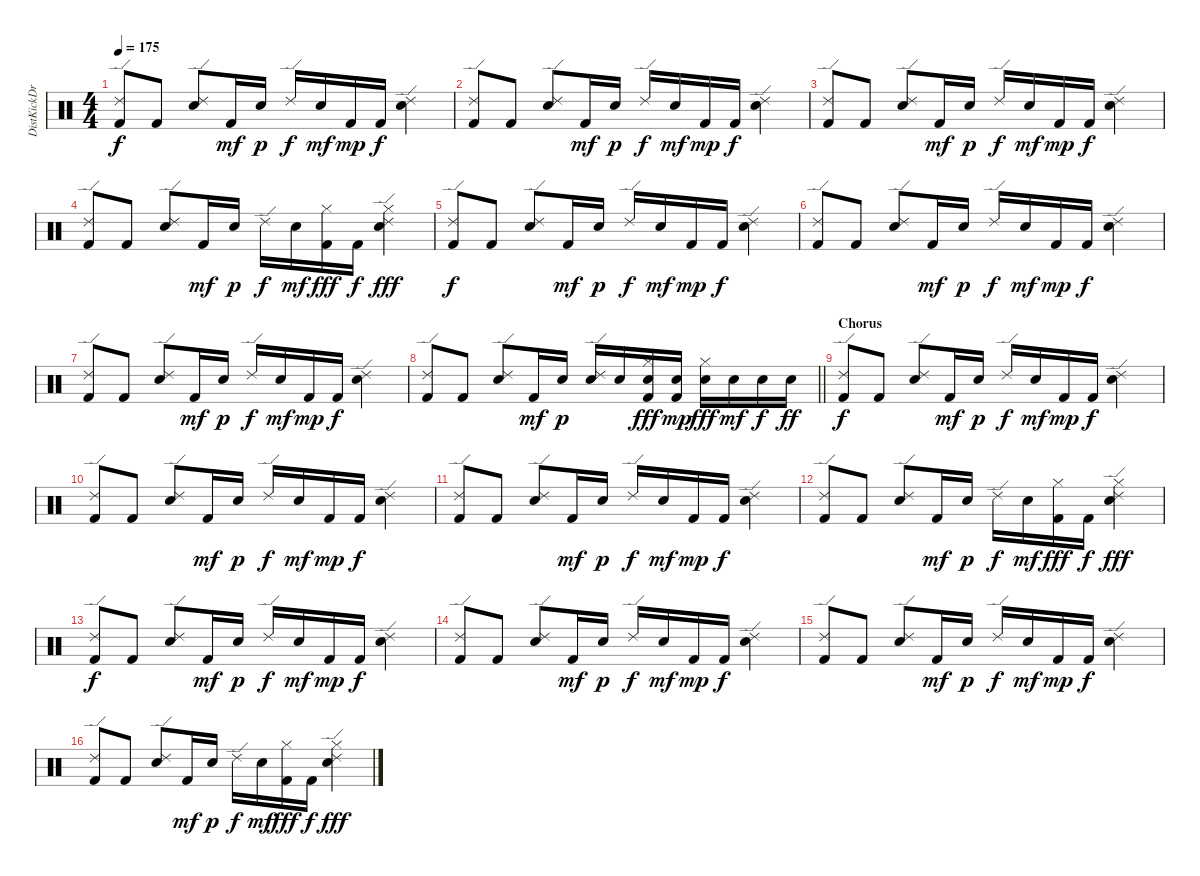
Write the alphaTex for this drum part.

\track ("DistKickDrums" "DistKickDr") {instrument percussion}
\staff {score}
\articulation defaults
\ts (4 4)
\tempo 175
\clef neutral
\ks c
("Kick (hit) 2" "Ride (edge) 2").8{dy f} "Kick (hit) 2".8 ("Snare (hit) 2" "Ride (edge) 2").8 "Kick (hit) 2".16{dy mf} "Snare (hit) 2".16{dy p} "Ride (edge) 2".16{dy f} "Snare (hit) 2".16{dy mf} "Kick (hit) 2".16{dy mp} "Kick (hit) 2".16{dy f} ("Snare (hit) 2" "Ride (edge) 2").4 |
("Kick (hit) 2" "Ride (edge) 2").8 "Kick (hit) 2".8 ("Snare (hit) 2" "Ride (edge) 2").8 "Kick (hit) 2".16{dy mf} "Snare (hit) 2".16{dy p} "Ride (edge) 2".16{dy f} "Snare (hit) 2".16{dy mf} "Kick (hit) 2".16{dy mp} "Kick (hit) 2".16{dy f} ("Snare (hit) 2" "Ride (edge) 2").4 |
("Kick (hit) 2" "Ride (edge) 2").8 "Kick (hit) 2".8 ("Snare (hit) 2" "Ride (edge) 2").8 "Kick (hit) 2".16{dy mf} "Snare (hit) 2".16{dy p} "Ride (edge) 2".16{dy f} "Snare (hit) 2".16{dy mf} "Kick (hit) 2".16{dy mp} "Kick (hit) 2".16{dy f} ("Snare (hit) 2" "Ride (edge) 2").4 |
("Kick (hit) 2" "Ride (edge) 2").8 "Kick (hit) 2".8 ("Snare (hit) 2" "Ride (edge) 2").8 "Kick (hit) 2".16{dy mf} "Snare (hit) 2".16{dy p} "Ride (edge) 2".16{dy f} "Snare (hit) 2".16{dy mf} ("Kick (hit) 2" "Cowbell high (tip)").16{dy fff} "Kick (hit) 2".16{dy f} ("Snare (hit) 2" "Ride (edge) 2" "Cowbell high (tip)").4{dy fff} |
("Kick (hit) 2" "Ride (edge) 2").8{dy f} "Kick (hit) 2".8 ("Snare (hit) 2" "Ride (edge) 2").8 "Kick (hit) 2".16{dy mf} "Snare (hit) 2".16{dy p} "Ride (edge) 2".16{dy f} "Snare (hit) 2".16{dy mf} "Kick (hit) 2".16{dy mp} "Kick (hit) 2".16{dy f} ("Snare (hit) 2" "Ride (edge) 2").4 |
("Kick (hit) 2" "Ride (edge) 2").8 "Kick (hit) 2".8 ("Snare (hit) 2" "Ride (edge) 2").8 "Kick (hit) 2".16{dy mf} "Snare (hit) 2".16{dy p} "Ride (edge) 2".16{dy f} "Snare (hit) 2".16{dy mf} "Kick (hit) 2".16{dy mp} "Kick (hit) 2".16{dy f} ("Snare (hit) 2" "Ride (edge) 2").4 |
("Kick (hit) 2" "Ride (edge) 2").8 "Kick (hit) 2".8 ("Snare (hit) 2" "Ride (edge) 2").8 "Kick (hit) 2".16{dy mf} "Snare (hit) 2".16{dy p} "Ride (edge) 2".16{dy f} "Snare (hit) 2".16{dy mf} "Kick (hit) 2".16{dy mp} "Kick (hit) 2".16{dy f} ("Snare (hit) 2" "Ride (edge) 2").4 |
\barLineRight lightlight
("Kick (hit) 2" "Ride (edge) 2").8 "Kick (hit) 2".8 ("Snare (hit) 2" "Ride (edge) 2").8 "Kick (hit) 2".16{dy mf} "Snare (hit) 2".16{dy p} ("Ride (edge) 2" "Electric Snare (hit)").16 "Electric Snare (hit)".16 ("Kick (hit) 2" "Electric Snare (hit)" "Cowbell high (tip)").16{dy fff} ("Kick (hit) 2" "Electric Snare (hit)").16{dy mp} ("Electric Snare (hit)" "Cowbell high (tip)").16{dy fff} "Electric Snare (hit)".16{dy mf} "Electric Snare (hit)".16{dy f} "Electric Snare (hit)".16{dy ff} |
\section ("" "Chorus")
("Kick (hit) 2" "Ride (edge) 2").8{dy f} "Kick (hit) 2".8 ("Snare (hit) 2" "Ride (edge) 2").8 "Kick (hit) 2".16{dy mf} "Snare (hit) 2".16{dy p} "Ride (edge) 2".16{dy f} "Snare (hit) 2".16{dy mf} "Kick (hit) 2".16{dy mp} "Kick (hit) 2".16{dy f} ("Snare (hit) 2" "Ride (edge) 2").4 |
("Kick (hit) 2" "Ride (edge) 2").8 "Kick (hit) 2".8 ("Snare (hit) 2" "Ride (edge) 2").8 "Kick (hit) 2".16{dy mf} "Snare (hit) 2".16{dy p} "Ride (edge) 2".16{dy f} "Snare (hit) 2".16{dy mf} "Kick (hit) 2".16{dy mp} "Kick (hit) 2".16{dy f} ("Snare (hit) 2" "Ride (edge) 2").4 |
("Kick (hit) 2" "Ride (edge) 2").8 "Kick (hit) 2".8 ("Snare (hit) 2" "Ride (edge) 2").8 "Kick (hit) 2".16{dy mf} "Snare (hit) 2".16{dy p} "Ride (edge) 2".16{dy f} "Snare (hit) 2".16{dy mf} "Kick (hit) 2".16{dy mp} "Kick (hit) 2".16{dy f} ("Snare (hit) 2" "Ride (edge) 2").4 |
("Kick (hit) 2" "Ride (edge) 2").8 "Kick (hit) 2".8 ("Snare (hit) 2" "Ride (edge) 2").8 "Kick (hit) 2".16{dy mf} "Snare (hit) 2".16{dy p} "Ride (edge) 2".16{dy f} "Snare (hit) 2".16{dy mf} ("Kick (hit) 2" "Cowbell high (tip)").16{dy fff} "Kick (hit) 2".16{dy f} ("Snare (hit) 2" "Ride (edge) 2" "Cowbell high (tip)").4{dy fff} |
("Kick (hit) 2" "Ride (edge) 2").8{dy f} "Kick (hit) 2".8 ("Snare (hit) 2" "Ride (edge) 2").8 "Kick (hit) 2".16{dy mf} "Snare (hit) 2".16{dy p} "Ride (edge) 2".16{dy f} "Snare (hit) 2".16{dy mf} "Kick (hit) 2".16{dy mp} "Kick (hit) 2".16{dy f} ("Snare (hit) 2" "Ride (edge) 2").4 |
("Kick (hit) 2" "Ride (edge) 2").8 "Kick (hit) 2".8 ("Snare (hit) 2" "Ride (edge) 2").8 "Kick (hit) 2".16{dy mf} "Snare (hit) 2".16{dy p} "Ride (edge) 2".16{dy f} "Snare (hit) 2".16{dy mf} "Kick (hit) 2".16{dy mp} "Kick (hit) 2".16{dy f} ("Snare (hit) 2" "Ride (edge) 2").4 |
("Kick (hit) 2" "Ride (edge) 2").8 "Kick (hit) 2".8 ("Snare (hit) 2" "Ride (edge) 2").8 "Kick (hit) 2".16{dy mf} "Snare (hit) 2".16{dy p} "Ride (edge) 2".16{dy f} "Snare (hit) 2".16{dy mf} "Kick (hit) 2".16{dy mp} "Kick (hit) 2".16{dy f} ("Snare (hit) 2" "Ride (edge) 2").4 |
("Kick (hit) 2" "Ride (edge) 2").8 "Kick (hit) 2".8 ("Snare (hit) 2" "Ride (edge) 2").8 "Kick (hit) 2".16{dy mf} "Snare (hit) 2".16{dy p} "Ride (edge) 2".16{dy f} "Snare (hit) 2".16{dy mf} ("Kick (hit) 2" "Cowbell high (tip)").16{dy fff} "Kick (hit) 2".16{dy f} ("Snare (hit) 2" "Ride (edge) 2" "Cowbell high (tip)").4{dy fff}
